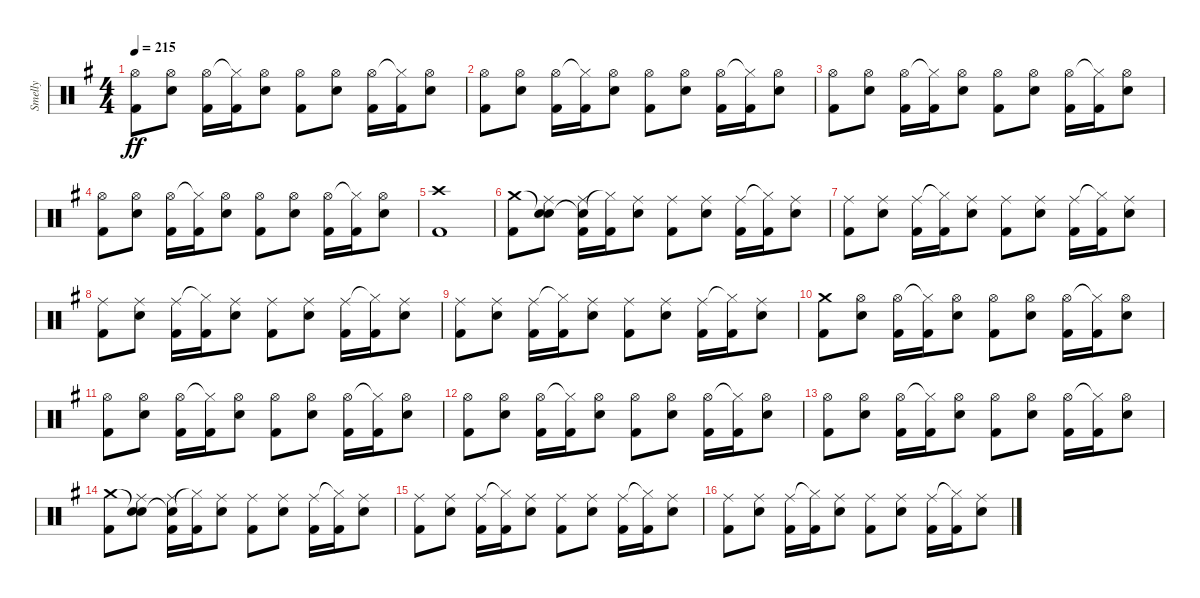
\track ("Smelly" "Smelly") {instrument percussion}
\staff {score}
\articulation defaults
\ts (4 4)
\tempo 215
\clef neutral
\ks eminor
("Hi-Hat (open)" "Kick (hit) 2").8{dy ff} ("Hi-Hat (open)" "Electric Snare (hit)").8 ("Hi-Hat (open)" "Kick (hit) 2").16 ("Hi-Hat (closed)"{t} "Kick (hit) 2").16 ("Hi-Hat (open)" "Electric Snare (hit)").8 ("Hi-Hat (open)" "Kick (hit) 2").8 ("Hi-Hat (open)" "Electric Snare (hit)").8 ("Hi-Hat (open)" "Kick (hit) 2").16 ("Hi-Hat (closed)"{t} "Kick (hit) 2").16 ("Hi-Hat (open)" "Electric Snare (hit)").8 |
("Hi-Hat (open)" "Kick (hit) 2").8 ("Hi-Hat (open)" "Electric Snare (hit)").8 ("Hi-Hat (open)" "Kick (hit) 2").16 ("Hi-Hat (closed)"{t} "Kick (hit) 2").16 ("Hi-Hat (open)" "Electric Snare (hit)").8 ("Hi-Hat (open)" "Kick (hit) 2").8 ("Hi-Hat (open)" "Electric Snare (hit)").8 ("Hi-Hat (open)" "Kick (hit) 2").16 ("Hi-Hat (closed)"{t} "Kick (hit) 2").16 ("Hi-Hat (open)" "Electric Snare (hit)").8 |
("Hi-Hat (open)" "Kick (hit) 2").8 ("Hi-Hat (open)" "Electric Snare (hit)").8 ("Hi-Hat (open)" "Kick (hit) 2").16 ("Hi-Hat (closed)"{t} "Kick (hit) 2").16 ("Hi-Hat (open)" "Electric Snare (hit)").8 ("Hi-Hat (open)" "Kick (hit) 2").8 ("Hi-Hat (open)" "Electric Snare (hit)").8 ("Hi-Hat (open)" "Kick (hit) 2").16 ("Hi-Hat (closed)"{t} "Kick (hit) 2").16 ("Hi-Hat (open)" "Electric Snare (hit)").8 |
("Hi-Hat (open)" "Kick (hit) 2").8 ("Hi-Hat (open)" "Electric Snare (hit)").8 ("Hi-Hat (open)" "Kick (hit) 2").16 ("Hi-Hat (closed)"{t} "Kick (hit) 2").16 ("Hi-Hat (open)" "Electric Snare (hit)").8 ("Hi-Hat (open)" "Kick (hit) 2").8 ("Hi-Hat (open)" "Electric Snare (hit)").8 ("Hi-Hat (open)" "Kick (hit) 2").16 ("Hi-Hat (closed)"{t} "Kick (hit) 2").16 ("Hi-Hat (open)" "Electric Snare (hit)").8 |
("Crash high (hit)" "Kick (hit) 2").1 |
("Crash medium (hit)" "Kick (hit) 2").8 ("Snare (hit)"{t} "Ride (middle)" "Electric Snare (hit)").8 ("Snare (hit)"{t} "Ride (middle)" "Kick (hit) 2").16 ("Hi-Hat (closed)"{t} "Kick (hit) 2").16 ("Ride (middle)" "Electric Snare (hit)").8 ("Ride (middle)" "Kick (hit) 2").8 ("Ride (middle)" "Electric Snare (hit)").8 ("Ride (middle)" "Kick (hit) 2").16 ("Hi-Hat (closed)"{t} "Kick (hit) 2").16 ("Ride (middle)" "Electric Snare (hit)").8 |
("Ride (middle)" "Kick (hit) 2").8 ("Ride (middle)" "Electric Snare (hit)").8 ("Ride (middle)" "Kick (hit) 2").16 ("Hi-Hat (closed)"{t} "Kick (hit) 2").16 ("Ride (middle)" "Electric Snare (hit)").8 ("Ride (middle)" "Kick (hit) 2").8 ("Ride (middle)" "Electric Snare (hit)").8 ("Ride (middle)" "Kick (hit) 2").16 ("Hi-Hat (closed)"{t} "Kick (hit) 2").16 ("Ride (middle)" "Electric Snare (hit)").8 |
("Ride (middle)" "Kick (hit) 2").8 ("Ride (middle)" "Electric Snare (hit)").8 ("Ride (middle)" "Kick (hit) 2").16 ("Hi-Hat (closed)"{t} "Kick (hit) 2").16 ("Ride (middle)" "Electric Snare (hit)").8 ("Ride (middle)" "Kick (hit) 2").8 ("Ride (middle)" "Electric Snare (hit)").8 ("Ride (middle)" "Kick (hit) 2").16 ("Hi-Hat (closed)"{t} "Kick (hit) 2").16 ("Ride (middle)" "Electric Snare (hit)").8 |
("Ride (middle)" "Kick (hit) 2").8 ("Ride (middle)" "Electric Snare (hit)").8 ("Ride (middle)" "Kick (hit) 2").16 ("Hi-Hat (closed)"{t} "Kick (hit) 2").16 ("Ride (middle)" "Electric Snare (hit)").8 ("Ride (middle)" "Kick (hit) 2").8 ("Ride (middle)" "Electric Snare (hit)").8 ("Ride (middle)" "Kick (hit) 2").16 ("Hi-Hat (closed)"{t} "Kick (hit) 2").16 ("Ride (middle)" "Electric Snare (hit)").8 |
("Crash medium (hit)" "Kick (hit) 2").8 ("Hi-Hat (open)" "Electric Snare (hit)").8 ("Hi-Hat (open)" "Kick (hit) 2").16 ("Hi-Hat (closed)"{t} "Kick (hit) 2").16 ("Hi-Hat (open)" "Electric Snare (hit)").8 ("Hi-Hat (open)" "Kick (hit) 2").8 ("Hi-Hat (open)" "Electric Snare (hit)").8 ("Hi-Hat (open)" "Kick (hit) 2").16 ("Hi-Hat (closed)"{t} "Kick (hit) 2").16 ("Hi-Hat (open)" "Electric Snare (hit)").8 |
("Hi-Hat (open)" "Kick (hit) 2").8 ("Hi-Hat (open)" "Electric Snare (hit)").8 ("Hi-Hat (open)" "Kick (hit) 2").16 ("Hi-Hat (closed)"{t} "Kick (hit) 2").16 ("Hi-Hat (open)" "Electric Snare (hit)").8 ("Hi-Hat (open)" "Kick (hit) 2").8 ("Hi-Hat (open)" "Electric Snare (hit)").8 ("Hi-Hat (open)" "Kick (hit) 2").16 ("Hi-Hat (closed)"{t} "Kick (hit) 2").16 ("Hi-Hat (open)" "Electric Snare (hit)").8 |
("Hi-Hat (open)" "Kick (hit) 2").8 ("Hi-Hat (open)" "Electric Snare (hit)").8 ("Hi-Hat (open)" "Kick (hit) 2").16 ("Hi-Hat (closed)"{t} "Kick (hit) 2").16 ("Hi-Hat (open)" "Electric Snare (hit)").8 ("Hi-Hat (open)" "Kick (hit) 2").8 ("Hi-Hat (open)" "Electric Snare (hit)").8 ("Hi-Hat (open)" "Kick (hit) 2").16 ("Hi-Hat (closed)"{t} "Kick (hit) 2").16 ("Hi-Hat (open)" "Electric Snare (hit)").8 |
("Hi-Hat (open)" "Kick (hit) 2").8 ("Hi-Hat (open)" "Electric Snare (hit)").8 ("Hi-Hat (open)" "Kick (hit) 2").16 ("Hi-Hat (closed)"{t} "Kick (hit) 2").16 ("Hi-Hat (open)" "Electric Snare (hit)").8 ("Hi-Hat (open)" "Kick (hit) 2").8 ("Hi-Hat (open)" "Electric Snare (hit)").8 ("Hi-Hat (open)" "Kick (hit) 2").16 ("Hi-Hat (closed)"{t} "Kick (hit) 2").16 ("Hi-Hat (open)" "Electric Snare (hit)").8 |
("Crash medium (hit)" "Kick (hit) 2").8 ("Snare (hit)"{t} "Ride (middle)" "Electric Snare (hit)").8 ("Snare (hit)"{t} "Ride (middle)" "Kick (hit) 2").16 ("Hi-Hat (closed)"{t} "Kick (hit) 2").16 ("Ride (middle)" "Electric Snare (hit)").8 ("Ride (middle)" "Kick (hit) 2").8 ("Ride (middle)" "Electric Snare (hit)").8 ("Ride (middle)" "Kick (hit) 2").16 ("Hi-Hat (closed)"{t} "Kick (hit) 2").16 ("Ride (middle)" "Electric Snare (hit)").8 |
("Ride (middle)" "Kick (hit) 2").8 ("Ride (middle)" "Electric Snare (hit)").8 ("Ride (middle)" "Kick (hit) 2").16 ("Hi-Hat (closed)"{t} "Kick (hit) 2").16 ("Ride (middle)" "Electric Snare (hit)").8 ("Ride (middle)" "Kick (hit) 2").8 ("Ride (middle)" "Electric Snare (hit)").8 ("Ride (middle)" "Kick (hit) 2").16 ("Hi-Hat (closed)"{t} "Kick (hit) 2").16 ("Ride (middle)" "Electric Snare (hit)").8 |
("Ride (middle)" "Kick (hit) 2").8 ("Ride (middle)" "Electric Snare (hit)").8 ("Ride (middle)" "Kick (hit) 2").16 ("Hi-Hat (closed)"{t} "Kick (hit) 2").16 ("Ride (middle)" "Electric Snare (hit)").8 ("Ride (middle)" "Kick (hit) 2").8 ("Ride (middle)" "Electric Snare (hit)").8 ("Ride (middle)" "Kick (hit) 2").16 ("Hi-Hat (closed)"{t} "Kick (hit) 2").16 ("Ride (middle)" "Electric Snare (hit)").8
